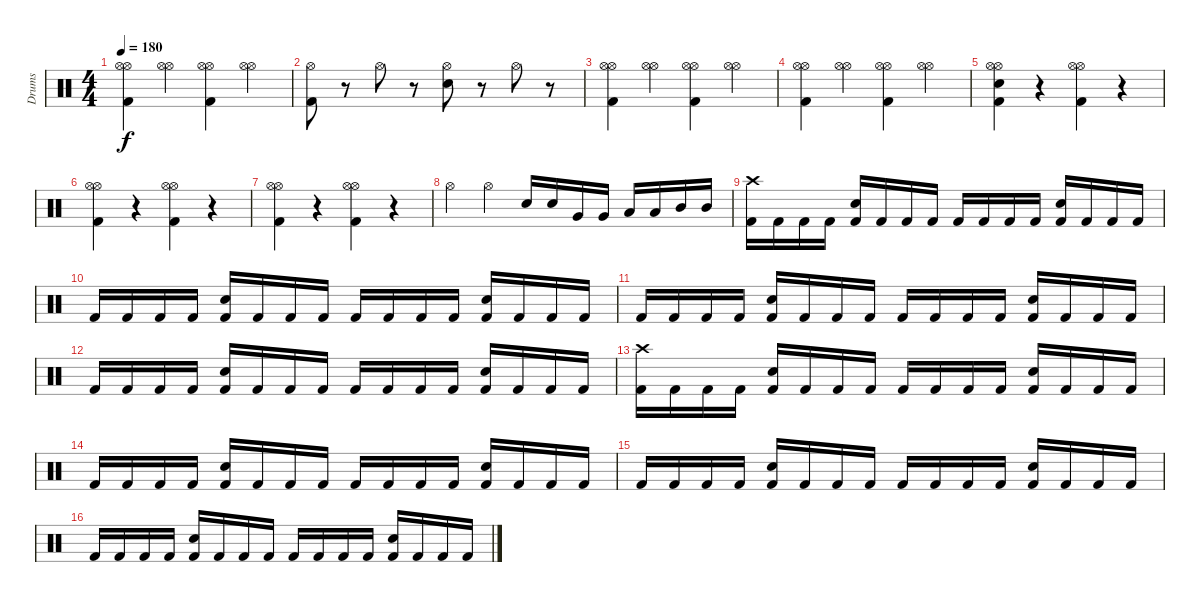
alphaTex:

\track ("Drums" "Drums") {instrument percussion}
\staff {score}
\articulation defaults
\ts (4 4)
\tempo 180
\clef neutral
\ks c
("Hi-Hat (open)" "Hi-Hat (open)" "Kick (hit) 2").4{dy f} ("Hi-Hat (open)" "Hi-Hat (open)").4 ("Hi-Hat (open)" "Hi-Hat (open)" "Kick (hit) 2").4 ("Hi-Hat (open)" "Hi-Hat (open)").4 |
("Hi-Hat (open)" "Kick (hit) 2").8 r.8 "Hi-Hat (open)".8 r.8 ("Hi-Hat (open)" "Snare (hit) 2").8 r.8 "Hi-Hat (open)".8 r.8 |
("Hi-Hat (open)" "Hi-Hat (open)" "Kick (hit) 2").4 ("Hi-Hat (open)" "Hi-Hat (open)").4 ("Hi-Hat (open)" "Hi-Hat (open)" "Kick (hit) 2").4 ("Hi-Hat (open)" "Hi-Hat (open)").4 |
("Hi-Hat (open)" "Hi-Hat (open)" "Kick (hit) 2").4 ("Hi-Hat (open)" "Hi-Hat (open)").4 ("Hi-Hat (open)" "Hi-Hat (open)" "Kick (hit) 2").4 ("Hi-Hat (open)" "Hi-Hat (open)").4 |
("Hi-Hat (open)" "Hi-Hat (open)" "Snare (hit) 2" "Kick (hit) 2").4 r.4 ("Hi-Hat (open)" "Hi-Hat (open)" "Kick (hit) 2").4 r.4 |
("Hi-Hat (open)" "Hi-Hat (open)" "Kick (hit) 2").4 r.4 ("Hi-Hat (open)" "Hi-Hat (open)" "Kick (hit) 2").4 r.4 |
("Hi-Hat (open)" "Hi-Hat (open)" "Kick (hit) 2").4 r.4 ("Hi-Hat (open)" "Hi-Hat (open)" "Kick (hit) 2").4 r.4 |
"Hi-Hat (open)".4 "Hi-Hat (open)".4 "Snare (hit) 2".16 "Snare (hit) 2".16 "Very Low Tom (hit)".16 "Very Low Tom (hit)".16 "Low Tom (hit)".16 "Low Tom (hit)".16 "Mid Tom (hit)".16 "Mid Tom (hit)".16 |
("Crash high (hit)" "Kick (hit) 2").16 "Kick (hit) 2".16 "Kick (hit) 2".16 "Kick (hit) 2".16 ("Snare (hit) 2" "Kick (hit) 2").16 "Kick (hit) 2".16 "Kick (hit) 2".16 "Kick (hit) 2".16 "Kick (hit) 2".16 "Kick (hit) 2".16 "Kick (hit) 2".16 "Kick (hit) 2".16 ("Snare (hit) 2" "Kick (hit) 2").16 "Kick (hit) 2".16 "Kick (hit) 2".16 "Kick (hit) 2".16 |
"Kick (hit) 2".16 "Kick (hit) 2".16 "Kick (hit) 2".16 "Kick (hit) 2".16 ("Snare (hit) 2" "Kick (hit) 2").16 "Kick (hit) 2".16 "Kick (hit) 2".16 "Kick (hit) 2".16 "Kick (hit) 2".16 "Kick (hit) 2".16 "Kick (hit) 2".16 "Kick (hit) 2".16 ("Snare (hit) 2" "Kick (hit) 2").16 "Kick (hit) 2".16 "Kick (hit) 2".16 "Kick (hit) 2".16 |
"Kick (hit) 2".16 "Kick (hit) 2".16 "Kick (hit) 2".16 "Kick (hit) 2".16 ("Snare (hit) 2" "Kick (hit) 2").16 "Kick (hit) 2".16 "Kick (hit) 2".16 "Kick (hit) 2".16 "Kick (hit) 2".16 "Kick (hit) 2".16 "Kick (hit) 2".16 "Kick (hit) 2".16 ("Snare (hit) 2" "Kick (hit) 2").16 "Kick (hit) 2".16 "Kick (hit) 2".16 "Kick (hit) 2".16 |
"Kick (hit) 2".16 "Kick (hit) 2".16 "Kick (hit) 2".16 "Kick (hit) 2".16 ("Snare (hit) 2" "Kick (hit) 2").16 "Kick (hit) 2".16 "Kick (hit) 2".16 "Kick (hit) 2".16 "Kick (hit) 2".16 "Kick (hit) 2".16 "Kick (hit) 2".16 "Kick (hit) 2".16 ("Snare (hit) 2" "Kick (hit) 2").16 "Kick (hit) 2".16 "Kick (hit) 2".16 "Kick (hit) 2".16 |
("Crash high (hit)" "Kick (hit) 2").16 "Kick (hit) 2".16 "Kick (hit) 2".16 "Kick (hit) 2".16 ("Snare (hit) 2" "Kick (hit) 2").16 "Kick (hit) 2".16 "Kick (hit) 2".16 "Kick (hit) 2".16 "Kick (hit) 2".16 "Kick (hit) 2".16 "Kick (hit) 2".16 "Kick (hit) 2".16 ("Snare (hit) 2" "Kick (hit) 2").16 "Kick (hit) 2".16 "Kick (hit) 2".16 "Kick (hit) 2".16 |
"Kick (hit) 2".16 "Kick (hit) 2".16 "Kick (hit) 2".16 "Kick (hit) 2".16 ("Snare (hit) 2" "Kick (hit) 2").16 "Kick (hit) 2".16 "Kick (hit) 2".16 "Kick (hit) 2".16 "Kick (hit) 2".16 "Kick (hit) 2".16 "Kick (hit) 2".16 "Kick (hit) 2".16 ("Snare (hit) 2" "Kick (hit) 2").16 "Kick (hit) 2".16 "Kick (hit) 2".16 "Kick (hit) 2".16 |
"Kick (hit) 2".16 "Kick (hit) 2".16 "Kick (hit) 2".16 "Kick (hit) 2".16 ("Snare (hit) 2" "Kick (hit) 2").16 "Kick (hit) 2".16 "Kick (hit) 2".16 "Kick (hit) 2".16 "Kick (hit) 2".16 "Kick (hit) 2".16 "Kick (hit) 2".16 "Kick (hit) 2".16 ("Snare (hit) 2" "Kick (hit) 2").16 "Kick (hit) 2".16 "Kick (hit) 2".16 "Kick (hit) 2".16 |
"Kick (hit) 2".16 "Kick (hit) 2".16 "Kick (hit) 2".16 "Kick (hit) 2".16 ("Snare (hit) 2" "Kick (hit) 2").16 "Kick (hit) 2".16 "Kick (hit) 2".16 "Kick (hit) 2".16 "Kick (hit) 2".16 "Kick (hit) 2".16 "Kick (hit) 2".16 "Kick (hit) 2".16 ("Snare (hit) 2" "Kick (hit) 2").16 "Kick (hit) 2".16 "Kick (hit) 2".16 "Kick (hit) 2".16
